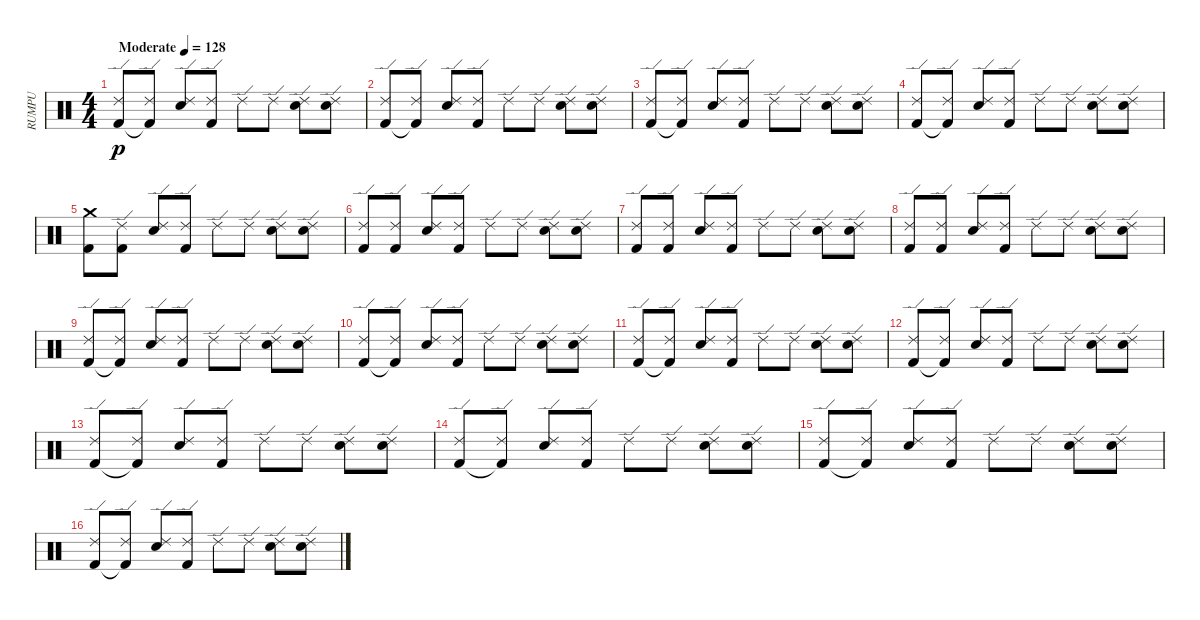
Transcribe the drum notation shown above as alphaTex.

\track ("RUMPU" "RUMPU") {instrument percussion}
\staff {score}
\articulation defaults
\ts (4 4)
\tempo (128 "Moderate")
\clef neutral
\ks c
("Ride (edge) 2" "Kick (hit) 2").8{dy p} ("Ride (edge) 2" "Kick (hit) 2"{t}).8 ("Ride (edge) 2" "Electric Snare (hit)").8 ("Ride (edge) 2" "Kick (hit) 2").8 "Ride (edge) 2".8 "Ride (edge) 2".8 ("Ride (edge) 2" "Electric Snare (hit)").8 ("Ride (edge) 2" "Electric Snare (hit)").8 |
("Ride (edge) 2" "Kick (hit) 2").8 ("Ride (edge) 2" "Kick (hit) 2"{t}).8 ("Ride (edge) 2" "Electric Snare (hit)").8 ("Ride (edge) 2" "Kick (hit) 2").8 "Ride (edge) 2".8 "Ride (edge) 2".8 ("Ride (edge) 2" "Electric Snare (hit)").8 ("Ride (edge) 2" "Electric Snare (hit)").8 |
("Ride (edge) 2" "Kick (hit) 2").8 ("Ride (edge) 2" "Kick (hit) 2"{t}).8 ("Ride (edge) 2" "Electric Snare (hit)").8 ("Ride (edge) 2" "Kick (hit) 2").8 "Ride (edge) 2".8 "Ride (edge) 2".8 ("Ride (edge) 2" "Electric Snare (hit)").8 ("Ride (edge) 2" "Electric Snare (hit)").8 |
("Ride (edge) 2" "Kick (hit) 2").8 ("Ride (edge) 2" "Kick (hit) 2"{t}).8 ("Ride (edge) 2" "Electric Snare (hit)").8 ("Ride (edge) 2" "Kick (hit) 2").8 "Ride (edge) 2".8 "Ride (edge) 2".8 ("Ride (edge) 2" "Electric Snare (hit)").8 ("Ride (edge) 2" "Electric Snare (hit)").8 |
("Crash medium (hit)" "Kick (hit) 2").8 ("Ride (edge) 2" "Kick (hit) 2").8 ("Ride (edge) 2" "Electric Snare (hit)").8 ("Ride (edge) 2" "Kick (hit) 2").8 "Ride (edge) 2".8 "Ride (edge) 2".8 ("Ride (edge) 2" "Electric Snare (hit)").8 ("Ride (edge) 2" "Electric Snare (hit)").8 |
("Ride (edge) 2" "Kick (hit) 2").8 ("Ride (edge) 2" "Kick (hit) 2").8 ("Ride (edge) 2" "Electric Snare (hit)").8 ("Ride (edge) 2" "Kick (hit) 2").8 "Ride (edge) 2".8 "Ride (edge) 2".8 ("Ride (edge) 2" "Electric Snare (hit)").8 ("Ride (edge) 2" "Electric Snare (hit)").8 |
("Ride (edge) 2" "Kick (hit) 2").8 ("Ride (edge) 2" "Kick (hit) 2").8 ("Ride (edge) 2" "Electric Snare (hit)").8 ("Ride (edge) 2" "Kick (hit) 2").8 "Ride (edge) 2".8 "Ride (edge) 2".8 ("Ride (edge) 2" "Electric Snare (hit)").8 ("Ride (edge) 2" "Electric Snare (hit)").8 |
("Ride (edge) 2" "Kick (hit) 2").8 ("Ride (edge) 2" "Kick (hit) 2").8 ("Ride (edge) 2" "Electric Snare (hit)").8 ("Ride (edge) 2" "Kick (hit) 2").8 "Ride (edge) 2".8 "Ride (edge) 2".8 ("Ride (edge) 2" "Electric Snare (hit)").8 ("Ride (edge) 2" "Electric Snare (hit)").8 |
("Ride (edge) 2" "Kick (hit) 2").8 ("Ride (edge) 2" "Kick (hit) 2"{t}).8 ("Ride (edge) 2" "Electric Snare (hit)").8 ("Ride (edge) 2" "Kick (hit) 2").8 "Ride (edge) 2".8 "Ride (edge) 2".8 ("Ride (edge) 2" "Electric Snare (hit)").8 ("Ride (edge) 2" "Electric Snare (hit)").8 |
("Ride (edge) 2" "Kick (hit) 2").8 ("Ride (edge) 2" "Kick (hit) 2"{t}).8 ("Ride (edge) 2" "Electric Snare (hit)").8 ("Ride (edge) 2" "Kick (hit) 2").8 "Ride (edge) 2".8 "Ride (edge) 2".8 ("Ride (edge) 2" "Electric Snare (hit)").8 ("Ride (edge) 2" "Electric Snare (hit)").8 |
("Ride (edge) 2" "Kick (hit) 2").8 ("Ride (edge) 2" "Kick (hit) 2"{t}).8 ("Ride (edge) 2" "Electric Snare (hit)").8 ("Ride (edge) 2" "Kick (hit) 2").8 "Ride (edge) 2".8 "Ride (edge) 2".8 ("Ride (edge) 2" "Electric Snare (hit)").8 ("Ride (edge) 2" "Electric Snare (hit)").8 |
("Ride (edge) 2" "Kick (hit) 2").8 ("Ride (edge) 2" "Kick (hit) 2"{t}).8 ("Ride (edge) 2" "Electric Snare (hit)").8 ("Ride (edge) 2" "Kick (hit) 2").8 "Ride (edge) 2".8 "Ride (edge) 2".8 ("Ride (edge) 2" "Electric Snare (hit)").8 ("Ride (edge) 2" "Electric Snare (hit)").8 |
("Ride (edge) 2" "Kick (hit) 2").8 ("Ride (edge) 2" "Kick (hit) 2"{t}).8 ("Ride (edge) 2" "Electric Snare (hit)").8 ("Ride (edge) 2" "Kick (hit) 2").8 "Ride (edge) 2".8 "Ride (edge) 2".8 ("Ride (edge) 2" "Electric Snare (hit)").8 ("Ride (edge) 2" "Electric Snare (hit)").8 |
("Ride (edge) 2" "Kick (hit) 2").8 ("Ride (edge) 2" "Kick (hit) 2"{t}).8 ("Ride (edge) 2" "Electric Snare (hit)").8 ("Ride (edge) 2" "Kick (hit) 2").8 "Ride (edge) 2".8 "Ride (edge) 2".8 ("Ride (edge) 2" "Electric Snare (hit)").8 ("Ride (edge) 2" "Electric Snare (hit)").8 |
("Ride (edge) 2" "Kick (hit) 2").8 ("Ride (edge) 2" "Kick (hit) 2"{t}).8 ("Ride (edge) 2" "Electric Snare (hit)").8 ("Ride (edge) 2" "Kick (hit) 2").8 "Ride (edge) 2".8 "Ride (edge) 2".8 ("Ride (edge) 2" "Electric Snare (hit)").8 ("Ride (edge) 2" "Electric Snare (hit)").8 |
("Ride (edge) 2" "Kick (hit) 2").8 ("Ride (edge) 2" "Kick (hit) 2"{t}).8 ("Ride (edge) 2" "Electric Snare (hit)").8 ("Ride (edge) 2" "Kick (hit) 2").8 "Ride (edge) 2".8 "Ride (edge) 2".8 ("Ride (edge) 2" "Electric Snare (hit)").8 ("Ride (edge) 2" "Electric Snare (hit)").8
